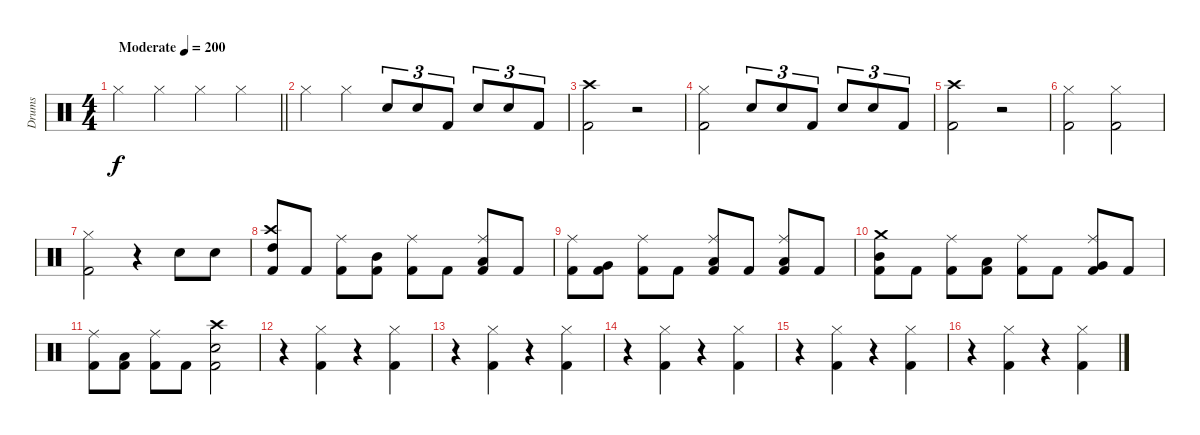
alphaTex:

\track ("Drums" "Drums") {instrument percussion}
\staff {score}
\articulation defaults
\ts (4 4)
\tempo (200 "Moderate")
\clef neutral
\barLineRight lightlight
\ks c "Hi-Hat (closed)".4{dy f} "Hi-Hat (closed)".4 "Hi-Hat (closed)".4 "Hi-Hat (closed)".4
|
\section ("" "")
"Hi-Hat (closed)".4 "Hi-Hat (closed)".4 "Snare (hit) 2".8{tu (3 2)} "Snare (hit) 2".8{tu (3 2)} "Kick (hit) 2".8{tu (3 2)} "Snare (hit) 2".8{tu (3 2)} "Snare (hit) 2".8{tu (3 2)} "Kick (hit) 2".8{tu (3 2)} |
("Crash high (hit)" "Kick (hit) 2").2 r.2 |
("Hi-Hat (closed)" "Kick (hit) 2").2 "Snare (hit) 2".8{tu (3 2)} "Snare (hit) 2".8{tu (3 2)} "Kick (hit) 2".8{tu (3 2)} "Snare (hit) 2".8{tu (3 2)} "Snare (hit) 2".8{tu (3 2)} "Kick (hit) 2".8{tu (3 2)} |
("Crash high (hit)" "Kick (hit) 2").2 r.2 |
("Hi-Hat (closed)" "Kick (hit) 2").2 ("Hi-Hat (closed)" "Kick (hit) 2").2 |
("Hi-Hat (closed)" "Kick (hit) 2").2 r.4 "Snare (hit) 2".8 "Snare (hit) 2".8 |
("Crash high (hit)" "High Tom (hit)" "Kick (hit) 2").8 "Kick (hit) 2".8 ("Ride (middle)" "Kick (hit) 2").8 ("Mid Tom (hit)" "Kick (hit) 2").8 ("Ride (middle)" "Kick (hit) 2").8 "Kick (hit) 2".8 ("Ride (middle)" "Low Tom (hit)" "Kick (hit) 2").8 "Kick (hit) 2".8 |
("Ride (middle)" "Kick (hit) 2").8 ("Very Low Tom (hit)" "Kick (hit) 2").8 ("Ride (middle)" "Kick (hit) 2").8 "Kick (hit) 2".8 ("Ride (middle)" "Low Floor Tom (hit)" "Kick (hit) 2").8 "Kick (hit) 2".8 ("Ride (middle)" "Low Floor Tom (hit)" "Kick (hit) 2").8 "Kick (hit) 2".8 |
("Crash medium (hit)" "Mid Tom (hit)" "Kick (hit) 2").8 "Kick (hit) 2".8 ("Ride (middle)" "Kick (hit) 2").8 ("Low Tom (hit)" "Kick (hit) 2").8 ("Ride (middle)" "Kick (hit) 2").8 "Kick (hit) 2".8 ("Ride (middle)" "Very Low Tom (hit)" "Kick (hit) 2").8 "Kick (hit) 2".8 |
("Ride (middle)" "Kick (hit) 2").8 ("Low Floor Tom (hit)" "Kick (hit) 2").8 ("Ride (middle)" "Kick (hit) 2").8 "Kick (hit) 2".8 ("Crash high (hit)" "Snare (hit) 2" "Kick (hit) 2").2 |
r.4 ("Hi-Hat (closed)" "Kick (hit) 2").4 r.4 ("Hi-Hat (closed)" "Kick (hit) 2").4 |
r.4 ("Hi-Hat (closed)" "Kick (hit) 2").4 r.4 ("Hi-Hat (closed)" "Kick (hit) 2").4 |
r.4 ("Hi-Hat (closed)" "Kick (hit) 2").4 r.4 ("Hi-Hat (closed)" "Kick (hit) 2").4 |
r.4 ("Hi-Hat (closed)" "Kick (hit) 2").4 r.4 ("Hi-Hat (closed)" "Kick (hit) 2").4 |
r.4 ("Hi-Hat (closed)" "Kick (hit) 2").4 r.4 ("Hi-Hat (closed)" "Kick (hit) 2").4
